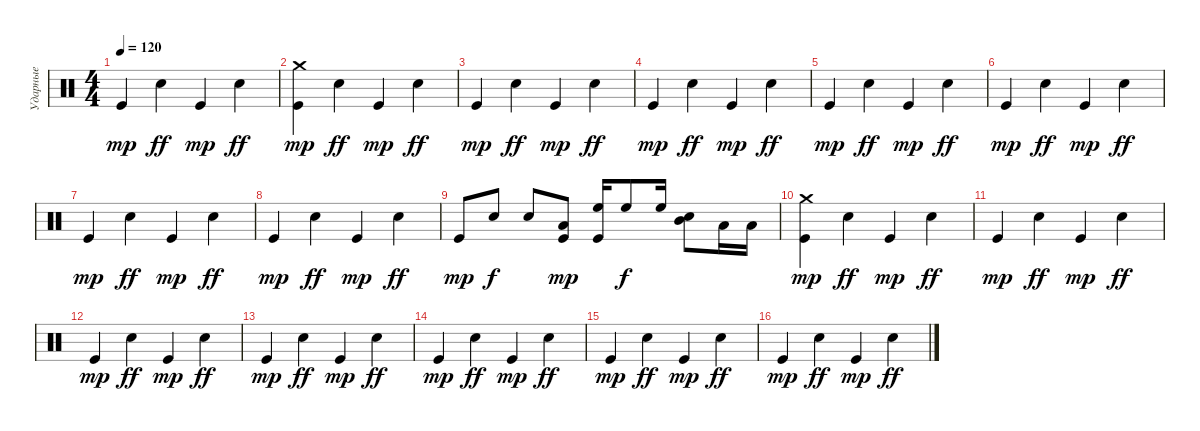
\track ("Ударные" "Ударные") {instrument percussion}
\staff {score}
\articulation defaults
\ts (4 4)
\tempo 120
\clef neutral
\ks c "Kick (hit)".4{dy mp} "Snare (hit) 2".4{dy ff} "Kick (hit)".4{dy mp} "Snare (hit) 2".4{dy ff}
|
("Kick (hit)" "Crash medium (hit)").4{dy mp} "Snare (hit) 2".4{dy ff} "Kick (hit)".4{dy mp} "Snare (hit) 2".4{dy ff} |
"Kick (hit)".4{dy mp} "Snare (hit) 2".4{dy ff} "Kick (hit)".4{dy mp} "Snare (hit) 2".4{dy ff} |
"Kick (hit)".4{dy mp} "Snare (hit) 2".4{dy ff} "Kick (hit)".4{dy mp} "Snare (hit) 2".4{dy ff} |
"Kick (hit)".4{dy mp} "Snare (hit) 2".4{dy ff} "Kick (hit)".4{dy mp} "Snare (hit) 2".4{dy ff} |
"Kick (hit)".4{dy mp} "Snare (hit) 2".4{dy ff} "Kick (hit)".4{dy mp} "Snare (hit) 2".4{dy ff} |
"Kick (hit)".4{dy mp} "Snare (hit) 2".4{dy ff} "Kick (hit)".4{dy mp} "Snare (hit) 2".4{dy ff} |
"Kick (hit)".4{dy mp} "Snare (hit) 2".4{dy ff} "Kick (hit)".4{dy mp} "Snare (hit) 2".4{dy ff} |
"Kick (hit)".8{dy mp} "Snare (hit) 2".8{dy f} "Snare (hit) 2".8 ("Kick (hit)" "Low Tom (hit)").8{dy mp} ("High Floor Tom (hit)" "Kick (hit)").16 "High Floor Tom (hit)".8{dy f} "High Floor Tom (hit)".16 ("Mid Tom (hit)" "Snare (hit) 2").8 "Low Tom (hit)".16 "Low Tom (hit)".16 |
("Kick (hit)" "Crash medium (hit)").4{dy mp} "Snare (hit) 2".4{dy ff} "Kick (hit)".4{dy mp} "Snare (hit) 2".4{dy ff} |
"Kick (hit)".4{dy mp} "Snare (hit) 2".4{dy ff} "Kick (hit)".4{dy mp} "Snare (hit) 2".4{dy ff} |
"Kick (hit)".4{dy mp} "Snare (hit) 2".4{dy ff} "Kick (hit)".4{dy mp} "Snare (hit) 2".4{dy ff} |
"Kick (hit)".4{dy mp} "Snare (hit) 2".4{dy ff} "Kick (hit)".4{dy mp} "Snare (hit) 2".4{dy ff} |
"Kick (hit)".4{dy mp} "Snare (hit) 2".4{dy ff} "Kick (hit)".4{dy mp} "Snare (hit) 2".4{dy ff} |
"Kick (hit)".4{dy mp} "Snare (hit) 2".4{dy ff} "Kick (hit)".4{dy mp} "Snare (hit) 2".4{dy ff} |
"Kick (hit)".4{dy mp} "Snare (hit) 2".4{dy ff} "Kick (hit)".4{dy mp} "Snare (hit) 2".4{dy ff}
